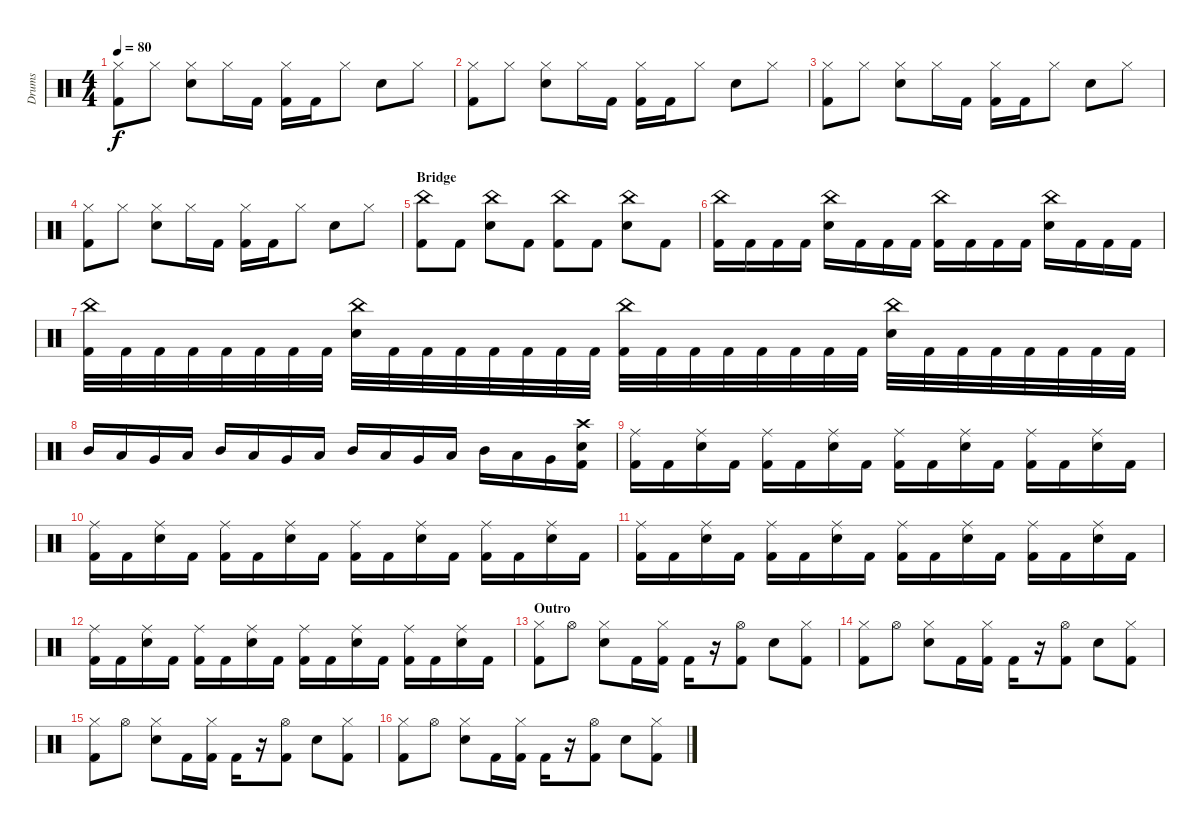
\track ("Drums" "Drums") {instrument percussion}
\staff {score}
\articulation defaults
\ts (4 4)
\tempo 80
\clef neutral
\ks c
("Hi-Hat (closed)" "Kick (hit) 2").8{dy f} "Hi-Hat (closed)".8 ("Hi-Hat (closed)" "Electric Snare (hit)").8 "Hi-Hat (closed)".16 "Kick (hit) 2".16 ("Hi-Hat (closed)" "Kick (hit) 2").16 "Kick (hit) 2".16 "Hi-Hat (closed)".8 "Electric Snare (hit)".8 "Hi-Hat (closed)".8 |
("Hi-Hat (closed)" "Kick (hit) 2").8 "Hi-Hat (closed)".8 ("Hi-Hat (closed)" "Electric Snare (hit)").8 "Hi-Hat (closed)".16 "Kick (hit) 2".16 ("Hi-Hat (closed)" "Kick (hit) 2").16 "Kick (hit) 2".16 "Hi-Hat (closed)".8 "Electric Snare (hit)".8 "Hi-Hat (closed)".8 |
("Hi-Hat (closed)" "Kick (hit) 2").8 "Hi-Hat (closed)".8 ("Hi-Hat (closed)" "Electric Snare (hit)").8 "Hi-Hat (closed)".16 "Kick (hit) 2".16 ("Hi-Hat (closed)" "Kick (hit) 2").16 "Kick (hit) 2".16 "Hi-Hat (closed)".8 "Electric Snare (hit)".8 "Hi-Hat (closed)".8 |
("Hi-Hat (closed)" "Kick (hit) 2").8 "Hi-Hat (closed)".8 ("Hi-Hat (closed)" "Electric Snare (hit)").8 "Hi-Hat (closed)".16 "Kick (hit) 2".16 ("Hi-Hat (closed)" "Kick (hit) 2").16 "Kick (hit) 2".16 "Hi-Hat (closed)".8 "Electric Snare (hit)".8 "Hi-Hat (closed)".8 |
\section ("" "Bridge")
("China (hit)" "Kick (hit) 2").8 "Kick (hit) 2".8 ("China (hit)" "Electric Snare (hit)").8 "Kick (hit) 2".8 ("China (hit)" "Kick (hit) 2").8 "Kick (hit) 2".8 ("China (hit)" "Electric Snare (hit)").8 "Kick (hit) 2".8 |
("China (hit)" "Kick (hit) 2").16 "Kick (hit) 2".16 "Kick (hit) 2".16 "Kick (hit) 2".16 ("China (hit)" "Electric Snare (hit)").16 "Kick (hit) 2".16 "Kick (hit) 2".16 "Kick (hit) 2".16 ("China (hit)" "Kick (hit) 2").16 "Kick (hit) 2".16 "Kick (hit) 2".16 "Kick (hit) 2".16 ("China (hit)" "Electric Snare (hit)").16 "Kick (hit) 2".16 "Kick (hit) 2".16 "Kick (hit) 2".16 |
("China (hit)" "Kick (hit) 2").32 "Kick (hit) 2".32 "Kick (hit) 2".32 "Kick (hit) 2".32 "Kick (hit) 2".32 "Kick (hit) 2".32 "Kick (hit) 2".32 "Kick (hit) 2".32 ("China (hit)" "Electric Snare (hit)").32 "Kick (hit) 2".32 "Kick (hit) 2".32 "Kick (hit) 2".32 "Kick (hit) 2".32 "Kick (hit) 2".32 "Kick (hit) 2".32 "Kick (hit) 2".32 ("China (hit)" "Kick (hit) 2").32 "Kick (hit) 2".32 "Kick (hit) 2".32 "Kick (hit) 2".32 "Kick (hit) 2".32 "Kick (hit) 2".32 "Kick (hit) 2".32 "Kick (hit) 2".32 ("China (hit)" "Electric Snare (hit)").32 "Kick (hit) 2".32 "Kick (hit) 2".32 "Kick (hit) 2".32 "Kick (hit) 2".32 "Kick (hit) 2".32 "Kick (hit) 2".32 "Kick (hit) 2".32 |
"Mid Tom (hit)".16 "Low Tom (hit)".16 "Very Low Tom (hit)".16 "Low Floor Tom (hit)".16 "Mid Tom (hit)".16 "Low Tom (hit)".16 "Very Low Tom (hit)".16 "Low Floor Tom (hit)".16 "Mid Tom (hit)".16 "Low Tom (hit)".16 "Very Low Tom (hit)".16 "Low Floor Tom (hit)".16 "Mid Tom (hit)".16 "Low Tom (hit)".16 "Very Low Tom (hit)".16 ("Crash high (hit)" "Electric Snare (hit)" "Kick (hit) 2").16 |
("Ride (middle)" "Kick (hit) 2").16 "Kick (hit) 2".16 ("Ride (middle)" "Electric Snare (hit)").16 "Kick (hit) 2".16 ("Ride (middle)" "Kick (hit) 2").16 "Kick (hit) 2".16 ("Ride (middle)" "Electric Snare (hit)").16 "Kick (hit) 2".16 ("Ride (middle)" "Kick (hit) 2").16 "Kick (hit) 2".16 ("Ride (middle)" "Electric Snare (hit)").16 "Kick (hit) 2".16 ("Ride (middle)" "Kick (hit) 2").16 "Kick (hit) 2".16 ("Ride (middle)" "Electric Snare (hit)").16 "Kick (hit) 2".16 |
("Ride (middle)" "Kick (hit) 2").16 "Kick (hit) 2".16 ("Ride (middle)" "Electric Snare (hit)").16 "Kick (hit) 2".16 ("Ride (middle)" "Kick (hit) 2").16 "Kick (hit) 2".16 ("Ride (middle)" "Electric Snare (hit)").16 "Kick (hit) 2".16 ("Ride (middle)" "Kick (hit) 2").16 "Kick (hit) 2".16 ("Ride (middle)" "Electric Snare (hit)").16 "Kick (hit) 2".16 ("Ride (middle)" "Kick (hit) 2").16 "Kick (hit) 2".16 ("Ride (middle)" "Electric Snare (hit)").16 "Kick (hit) 2".16 |
("Ride (middle)" "Kick (hit) 2").16 "Kick (hit) 2".16 ("Ride (middle)" "Electric Snare (hit)").16 "Kick (hit) 2".16 ("Ride (middle)" "Kick (hit) 2").16 "Kick (hit) 2".16 ("Ride (middle)" "Electric Snare (hit)").16 "Kick (hit) 2".16 ("Ride (middle)" "Kick (hit) 2").16 "Kick (hit) 2".16 ("Ride (middle)" "Electric Snare (hit)").16 "Kick (hit) 2".16 ("Ride (middle)" "Kick (hit) 2").16 "Kick (hit) 2".16 ("Ride (middle)" "Electric Snare (hit)").16 "Kick (hit) 2".16 |
("Ride (middle)" "Kick (hit) 2").16 "Kick (hit) 2".16 ("Ride (middle)" "Electric Snare (hit)").16 "Kick (hit) 2".16 ("Ride (middle)" "Kick (hit) 2").16 "Kick (hit) 2".16 ("Ride (middle)" "Electric Snare (hit)").16 "Kick (hit) 2".16 ("Ride (middle)" "Kick (hit) 2").16 "Kick (hit) 2".16 ("Ride (middle)" "Electric Snare (hit)").16 "Kick (hit) 2".16 ("Ride (middle)" "Kick (hit) 2").16 "Kick (hit) 2".16 ("Ride (middle)" "Electric Snare (hit)").16 "Kick (hit) 2".16 |
\section ("" "Outro")
("Hi-Hat (closed)" "Kick (hit) 2").8 "Hi-Hat (open)".8 ("Hi-Hat (closed)" "Electric Snare (hit)").8 "Kick (hit) 2".16 ("Hi-Hat (closed)" "Kick (hit) 2").16 "Kick (hit) 2".16 r.16 ("Hi-Hat (open)" "Kick (hit) 2").8 "Electric Snare (hit)".8 ("Hi-Hat (closed)" "Kick (hit) 2").8 |
("Hi-Hat (closed)" "Kick (hit) 2").8 "Hi-Hat (open)".8 ("Hi-Hat (closed)" "Electric Snare (hit)").8 "Kick (hit) 2".16 ("Hi-Hat (closed)" "Kick (hit) 2").16 "Kick (hit) 2".16 r.16 ("Hi-Hat (open)" "Kick (hit) 2").8 "Electric Snare (hit)".8 ("Hi-Hat (closed)" "Kick (hit) 2").8 |
("Hi-Hat (closed)" "Kick (hit) 2").8 "Hi-Hat (open)".8 ("Hi-Hat (closed)" "Electric Snare (hit)").8 "Kick (hit) 2".16 ("Hi-Hat (closed)" "Kick (hit) 2").16 "Kick (hit) 2".16 r.16 ("Hi-Hat (open)" "Kick (hit) 2").8 "Electric Snare (hit)".8 ("Hi-Hat (closed)" "Kick (hit) 2").8 |
("Hi-Hat (closed)" "Kick (hit) 2").8 "Hi-Hat (open)".8 ("Hi-Hat (closed)" "Electric Snare (hit)").8 "Kick (hit) 2".16 ("Hi-Hat (closed)" "Kick (hit) 2").16 "Kick (hit) 2".16 r.16 ("Hi-Hat (open)" "Kick (hit) 2").8 "Electric Snare (hit)".8 ("Hi-Hat (closed)" "Kick (hit) 2").8
